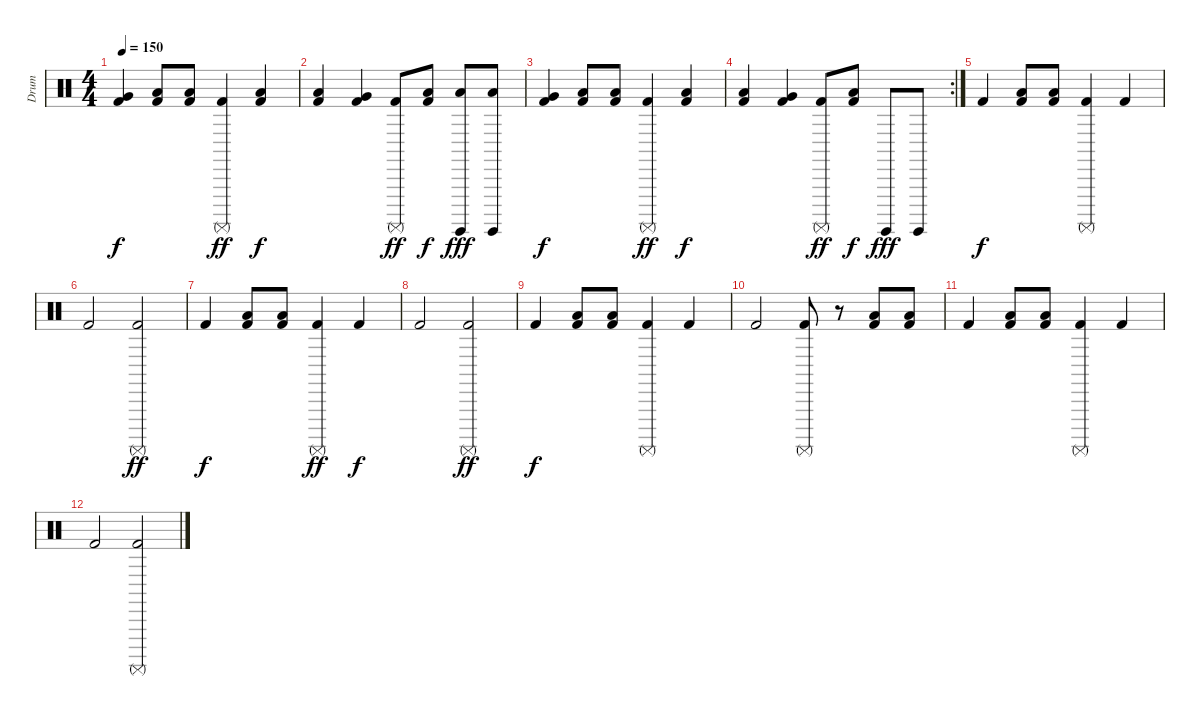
\track ("Drum" "Drum") {instrument percussion}
\staff {score}
\articulation defaults
\ts (4 4)
\tempo 150
\clef neutral
\ks c
("Very Low Tom (hit)" "Kick (hit) 2").4{dy f} ("Low Floor Tom (hit)" "Kick (hit) 2").8 ("Low Floor Tom (hit)" "Kick (hit) 2").8 ("Surdo (mute)" "Kick (hit) 2").4{dy ff} ("Low Floor Tom (hit)" "Kick (hit) 2").4{dy f} |
("Low Tom (hit)" "Kick (hit) 2").4 ("Very Low Tom (hit)" "Kick (hit) 2").4 ("Surdo (mute)" "Kick (hit) 2").8{dy ff} ("Low Floor Tom (hit)" "Kick (hit) 2").8{dy f} ("Surdo (hit)" "Low Floor Tom (hit)").8{dy fff} ("Surdo (hit)" "Low Floor Tom (hit)").8 |
("Very Low Tom (hit)" "Kick (hit) 2").4{dy f} ("Low Floor Tom (hit)" "Kick (hit) 2").8 ("Low Floor Tom (hit)" "Kick (hit) 2").8 ("Surdo (mute)" "Kick (hit) 2").4{dy ff} ("Low Floor Tom (hit)" "Kick (hit) 2").4{dy f} |
\rc 2
("Low Tom (hit)" "Kick (hit) 2").4 ("Very Low Tom (hit)" "Kick (hit) 2").4 ("Surdo (mute)" "Kick (hit) 2").8{dy ff} ("Low Floor Tom (hit)" "Kick (hit) 2").8{dy f} "Surdo (hit)".8{dy fff} "Surdo (hit)".8 |
"Kick (hit) 2".4{dy f} ("Low Floor Tom (hit)" "Kick (hit) 2").8 ("Low Floor Tom (hit)" "Kick (hit) 2").8 ("Surdo (mute)" "Kick (hit) 2").4 "Kick (hit) 2".4 |
"Kick (hit) 2".2 ("Surdo (mute)" "Kick (hit) 2").2{dy ff} |
"Kick (hit) 2".4{dy f} ("Low Floor Tom (hit)" "Kick (hit) 2").8 ("Low Floor Tom (hit)" "Kick (hit) 2").8 ("Surdo (mute)" "Kick (hit) 2").4{dy ff} "Kick (hit) 2".4{dy f} |
"Kick (hit) 2".2 ("Surdo (mute)" "Kick (hit) 2").2{dy ff} |
"Kick (hit) 2".4{dy f} ("Low Floor Tom (hit)" "Kick (hit) 2").8 ("Low Floor Tom (hit)" "Kick (hit) 2").8 ("Surdo (mute)" "Kick (hit) 2").4 "Kick (hit) 2".4 |
"Kick (hit) 2".2 ("Surdo (mute)" "Kick (hit) 2").8 r.8 ("Low Floor Tom (hit)" "Kick (hit) 2").8 ("Low Floor Tom (hit)" "Kick (hit) 2").8 |
"Kick (hit) 2".4 ("Low Floor Tom (hit)" "Kick (hit) 2").8 ("Low Floor Tom (hit)" "Kick (hit) 2").8 ("Surdo (mute)" "Kick (hit) 2").4 "Kick (hit) 2".4 |
"Kick (hit) 2".2 ("Surdo (mute)" "Kick (hit) 2").2
